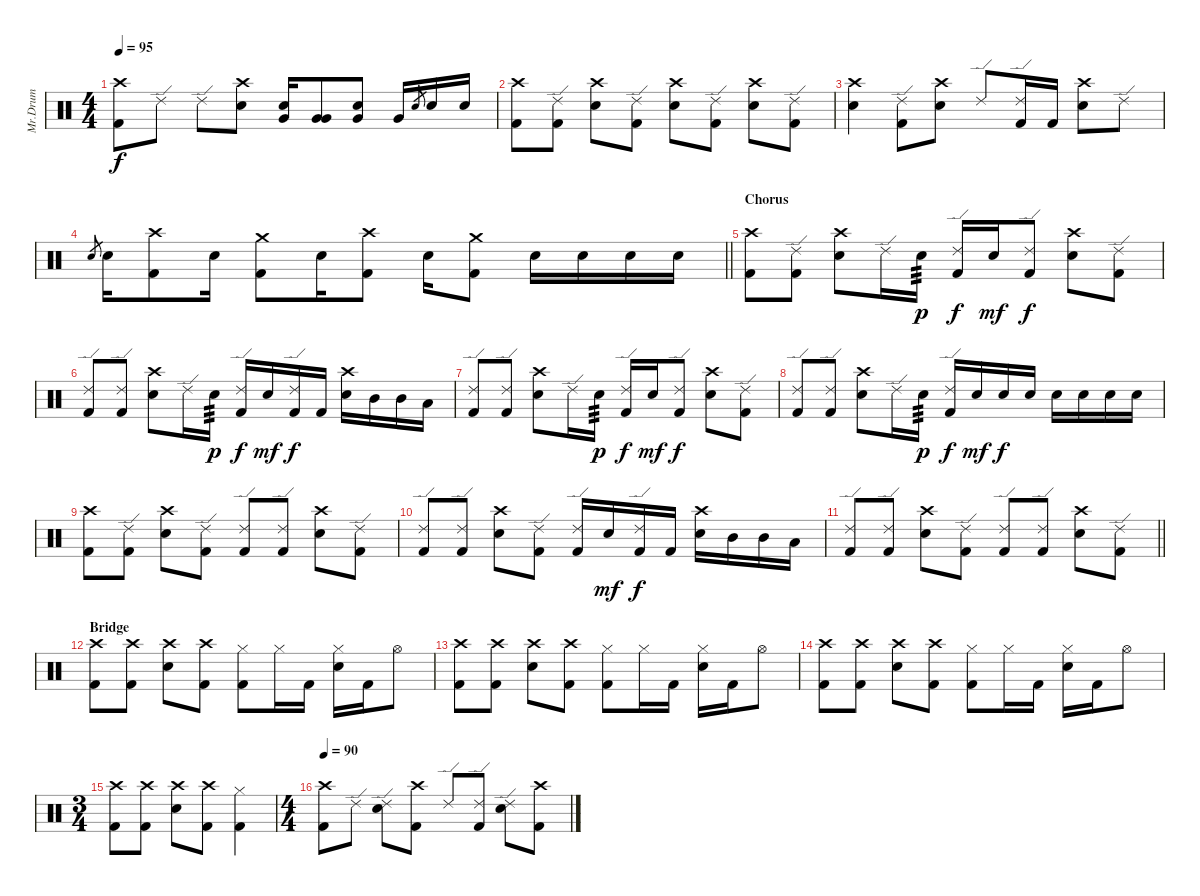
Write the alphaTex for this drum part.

\track ("Mr.Drum" "Mr.Drum") {instrument percussion}
\staff {score}
\articulation defaults
\ts (4 4)
\tempo 95
\clef neutral
\ks c
("Crash high (hit)" "Kick (hit) 2").8{dy f} "Ride (edge) 2".8 "Ride (edge) 2".8 ("Crash high (hit)" "Electric Snare (hit)").8 ("Very Low Tom (hit)" "Electric Snare (hit)").16 ("Very Low Tom (hit)" "Very Low Tom (hit)").8 ("Very Low Tom (hit)" "Electric Snare (hit)").8 "Very Low Tom (hit)".16 "Electric Snare (hit)".8{gr} "Electric Snare (hit)".16 "Electric Snare (hit)".16 |
("Crash high (hit)" "Kick (hit) 2").8 ("Ride (edge) 2" "Kick (hit) 2").8 ("Crash high (hit)" "Electric Snare (hit)").8 ("Ride (edge) 2" "Kick (hit) 2").8 ("Crash high (hit)" "Electric Snare (hit)").8 ("Ride (edge) 2" "Kick (hit) 2").8 ("Crash high (hit)" "Electric Snare (hit)").8 ("Ride (edge) 2" "Kick (hit) 2").8 |
("Crash high (hit)" "Electric Snare (hit)").4 ("Ride (edge) 2" "Kick (hit) 2").8 ("Crash high (hit)" "Electric Snare (hit)").8 "Ride (edge) 2".8 ("Ride (edge) 2" "Kick (hit) 2").16 "Kick (hit) 2".16 ("Crash high (hit)" "Electric Snare (hit)").8 "Ride (edge) 2".8 |
\barLineRight lightlight "Electric Snare (hit)".8{gr} "Electric Snare (hit)".16
("Crash high (hit)" "Kick (hit) 2").8 "Electric Snare (hit)".16 ("Crash medium (hit)" "Kick (hit) 2").8 "Electric Snare (hit)".16 ("Crash high (hit)" "Kick (hit) 2").8 "Electric Snare (hit)".16 ("Crash medium (hit)" "Kick (hit) 2").8 "Electric Snare (hit)".16 "Electric Snare (hit)".16 "Electric Snare (hit)".16 "Electric Snare (hit)".16 |
\section ("" "Chorus")
("Crash high (hit)" "Kick (hit) 2").8 ("Ride (edge) 2" "Kick (hit) 2").8 ("Crash high (hit)" "Electric Snare (hit)").8 "Ride (edge) 2".16 "Electric Snare (hit)".16{tp 3 dy p} ("Ride (edge) 2" "Kick (hit) 2").16{dy f} "Electric Snare (hit)".16{dy mf} ("Ride (edge) 2" "Kick (hit) 2").8{dy f} ("Crash high (hit)" "Electric Snare (hit)").8 ("Ride (edge) 2" "Kick (hit) 2").8 |
("Ride (edge) 2" "Kick (hit) 2").8 ("Ride (edge) 2" "Kick (hit) 2").8 ("Crash high (hit)" "Electric Snare (hit)").8 "Ride (edge) 2".16 "Electric Snare (hit)".16{tp 3 dy p} ("Ride (edge) 2" "Kick (hit) 2").16{dy f} "Electric Snare (hit)".16{dy mf} ("Ride (edge) 2" "Kick (hit) 2").16{dy f} "Kick (hit) 2".16 ("Crash high (hit)" "Electric Snare (hit)").16 "Mid Tom (hit)".16 "Mid Tom (hit)".16 "Low Tom (hit)".16 |
("Ride (edge) 2" "Kick (hit) 2").8 ("Ride (edge) 2" "Kick (hit) 2").8 ("Crash high (hit)" "Electric Snare (hit)").8 "Ride (edge) 2".16 "Electric Snare (hit)".16{tp 3 dy p} ("Ride (edge) 2" "Kick (hit) 2").16{dy f} "Electric Snare (hit)".16{dy mf} ("Ride (edge) 2" "Kick (hit) 2").8{dy f} ("Crash high (hit)" "Electric Snare (hit)").8 ("Ride (edge) 2" "Kick (hit) 2").8 |
("Ride (edge) 2" "Kick (hit) 2").8 ("Ride (edge) 2" "Kick (hit) 2").8 ("Crash high (hit)" "Electric Snare (hit)").8 "Ride (edge) 2".16 "Electric Snare (hit)".16{tp 3 dy p} ("Ride (edge) 2" "Kick (hit) 2").16{dy f} "Electric Snare (hit)".16{dy mf} "Electric Snare (hit)".16{dy f} "Electric Snare (hit)".16 "Electric Snare (hit)".16 "Electric Snare (hit)".16 "Electric Snare (hit)".16 "Electric Snare (hit)".16 |
("Crash high (hit)" "Kick (hit) 2").8 ("Ride (edge) 2" "Kick (hit) 2").8 ("Crash high (hit)" "Electric Snare (hit)").8 ("Ride (edge) 2" "Kick (hit) 2").8 ("Ride (edge) 2" "Kick (hit) 2").8 ("Ride (edge) 2" "Kick (hit) 2").8 ("Crash high (hit)" "Electric Snare (hit)").8 ("Ride (edge) 2" "Kick (hit) 2").8 |
("Ride (edge) 2" "Kick (hit) 2").8 ("Ride (edge) 2" "Kick (hit) 2").8 ("Crash high (hit)" "Electric Snare (hit)").8 ("Ride (edge) 2" "Kick (hit) 2").8 ("Ride (edge) 2" "Kick (hit) 2").16 "Electric Snare (hit)".16{dy mf} ("Ride (edge) 2" "Kick (hit) 2").16{dy f} "Kick (hit) 2".16 ("Crash high (hit)" "Electric Snare (hit)").16 "Mid Tom (hit)".16 "Mid Tom (hit)".16 "Low Tom (hit)".16 |
\barLineRight lightlight
("Ride (edge) 2" "Kick (hit) 2").8 ("Ride (edge) 2" "Kick (hit) 2").8 ("Crash high (hit)" "Electric Snare (hit)").8 ("Ride (edge) 2" "Kick (hit) 2").8 ("Ride (edge) 2" "Kick (hit) 2").8 ("Ride (edge) 2" "Kick (hit) 2").8 ("Crash high (hit)" "Electric Snare (hit)").8 ("Ride (edge) 2" "Kick (hit) 2").8 |
\section ("" "Bridge")
("Crash high (hit)" "Kick (hit) 2").8 ("Crash high (hit)" "Kick (hit) 2").8 ("Crash high (hit)" "Electric Snare (hit)").8 ("Crash high (hit)" "Kick (hit) 2").8 ("Hi-Hat (closed)" "Kick (hit) 2").8 "Hi-Hat (closed)".16 "Kick (hit) 2".16 ("Hi-Hat (closed)" "Electric Snare (hit)").16 "Kick (hit) 2".16 "Hi-Hat (open)".8 |
("Crash high (hit)" "Kick (hit) 2").8 ("Crash high (hit)" "Kick (hit) 2").8 ("Crash high (hit)" "Electric Snare (hit)").8 ("Crash high (hit)" "Kick (hit) 2").8 ("Hi-Hat (closed)" "Kick (hit) 2").8 "Hi-Hat (closed)".16 "Kick (hit) 2".16 ("Hi-Hat (closed)" "Electric Snare (hit)").16 "Kick (hit) 2".16 "Hi-Hat (open)".8 |
("Crash high (hit)" "Kick (hit) 2").8 ("Crash high (hit)" "Kick (hit) 2").8 ("Crash high (hit)" "Electric Snare (hit)").8 ("Crash high (hit)" "Kick (hit) 2").8 ("Hi-Hat (closed)" "Kick (hit) 2").8 "Hi-Hat (closed)".16 "Kick (hit) 2".16 ("Hi-Hat (closed)" "Electric Snare (hit)").16 "Kick (hit) 2".16 "Hi-Hat (open)".8 |
\ts (3 4)
("Crash high (hit)" "Kick (hit) 2").8 ("Crash high (hit)" "Kick (hit) 2").8 ("Crash high (hit)" "Electric Snare (hit)").8 ("Crash high (hit)" "Kick (hit) 2").8 ("Hi-Hat (closed)" "Kick (hit) 2").4 |
\ts (4 4)
\tempo 90
("Crash high (hit)" "Kick (hit) 2").8 "Ride (edge) 2".8 ("Ride (edge) 2" "Electric Snare (hit)").8 ("Crash high (hit)" "Kick (hit) 2").8 "Ride (edge) 2".8 ("Ride (edge) 2" "Kick (hit) 2").8 ("Ride (edge) 2" "Electric Snare (hit)").8 ("Crash high (hit)" "Kick (hit) 2").8
